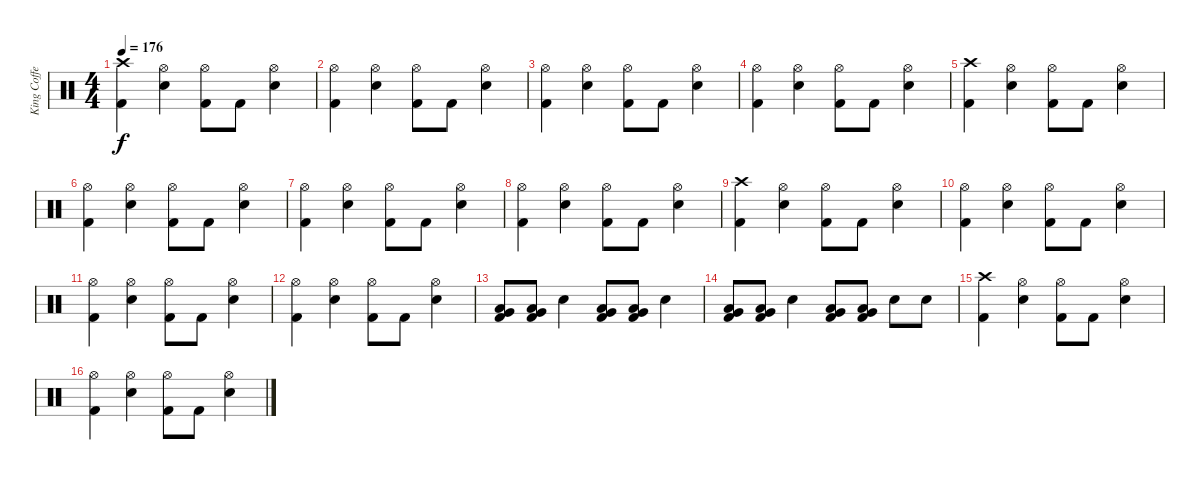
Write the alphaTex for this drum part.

\track ("King Coffey" "King Coffe") {instrument percussion}
\staff {score}
\articulation defaults
\ts (4 4)
\tempo 176
\clef neutral
\ks c
("Crash high (hit)" "Kick (hit) 2").4{dy f} ("Hi-Hat (open)" "Snare (hit) 2").4 ("Hi-Hat (open)" "Kick (hit) 2").8 "Kick (hit) 2".8 ("Hi-Hat (open)" "Snare (hit) 2").4 |
("Hi-Hat (open)" "Kick (hit) 2").4 ("Hi-Hat (open)" "Snare (hit) 2").4 ("Hi-Hat (open)" "Kick (hit) 2").8 "Kick (hit) 2".8 ("Hi-Hat (open)" "Snare (hit) 2").4 |
("Hi-Hat (open)" "Kick (hit) 2").4 ("Hi-Hat (open)" "Snare (hit) 2").4 ("Hi-Hat (open)" "Kick (hit) 2").8 "Kick (hit) 2".8 ("Hi-Hat (open)" "Snare (hit) 2").4 |
("Hi-Hat (open)" "Kick (hit) 2").4 ("Hi-Hat (open)" "Snare (hit) 2").4 ("Hi-Hat (open)" "Kick (hit) 2").8 "Kick (hit) 2".8 ("Hi-Hat (open)" "Snare (hit) 2").4 |
("Crash high (hit)" "Kick (hit) 2").4 ("Hi-Hat (open)" "Snare (hit) 2").4 ("Hi-Hat (open)" "Kick (hit) 2").8 "Kick (hit) 2".8 ("Hi-Hat (open)" "Snare (hit) 2").4 |
("Hi-Hat (open)" "Kick (hit) 2").4 ("Hi-Hat (open)" "Snare (hit) 2").4 ("Hi-Hat (open)" "Kick (hit) 2").8 "Kick (hit) 2".8 ("Hi-Hat (open)" "Snare (hit) 2").4 |
("Hi-Hat (open)" "Kick (hit) 2").4 ("Hi-Hat (open)" "Snare (hit) 2").4 ("Hi-Hat (open)" "Kick (hit) 2").8 "Kick (hit) 2".8 ("Hi-Hat (open)" "Snare (hit) 2").4 |
("Hi-Hat (open)" "Kick (hit) 2").4 ("Hi-Hat (open)" "Snare (hit) 2").4 ("Hi-Hat (open)" "Kick (hit) 2").8 "Kick (hit) 2".8 ("Hi-Hat (open)" "Snare (hit) 2").4 |
("Crash high (hit)" "Kick (hit) 2").4 ("Hi-Hat (open)" "Snare (hit) 2").4 ("Hi-Hat (open)" "Kick (hit) 2").8 "Kick (hit) 2".8 ("Hi-Hat (open)" "Snare (hit) 2").4 |
("Hi-Hat (open)" "Kick (hit) 2").4 ("Hi-Hat (open)" "Snare (hit) 2").4 ("Hi-Hat (open)" "Kick (hit) 2").8 "Kick (hit) 2".8 ("Hi-Hat (open)" "Snare (hit) 2").4 |
("Hi-Hat (open)" "Kick (hit) 2").4 ("Hi-Hat (open)" "Snare (hit) 2").4 ("Hi-Hat (open)" "Kick (hit) 2").8 "Kick (hit) 2".8 ("Hi-Hat (open)" "Snare (hit) 2").4 |
("Hi-Hat (open)" "Kick (hit) 2").4 ("Hi-Hat (open)" "Snare (hit) 2").4 ("Hi-Hat (open)" "Kick (hit) 2").8 "Kick (hit) 2".8 ("Hi-Hat (open)" "Snare (hit) 2").4 |
("Very Low Tom (hit)" "Low Tom (hit)" "Kick (hit) 2").8 ("Very Low Tom (hit)" "Low Tom (hit)" "Kick (hit) 2").8 "Snare (hit) 2".4 ("Very Low Tom (hit)" "Low Tom (hit)" "Kick (hit) 2").8 ("Very Low Tom (hit)" "Low Tom (hit)" "Kick (hit) 2").8 "Snare (hit) 2".4 |
("Very Low Tom (hit)" "Low Tom (hit)" "Kick (hit) 2").8 ("Very Low Tom (hit)" "Low Tom (hit)" "Kick (hit) 2").8 "Snare (hit) 2".4 ("Very Low Tom (hit)" "Low Tom (hit)" "Kick (hit) 2").8 ("Very Low Tom (hit)" "Low Tom (hit)" "Kick (hit) 2").8 "Snare (hit) 2".8 "Snare (hit) 2".8 |
("Crash high (hit)" "Kick (hit) 2").4 ("Hi-Hat (open)" "Snare (hit) 2").4 ("Hi-Hat (open)" "Kick (hit) 2").8 "Kick (hit) 2".8 ("Hi-Hat (open)" "Snare (hit) 2").4 |
("Hi-Hat (open)" "Kick (hit) 2").4 ("Hi-Hat (open)" "Snare (hit) 2").4 ("Hi-Hat (open)" "Kick (hit) 2").8 "Kick (hit) 2".8 ("Hi-Hat (open)" "Snare (hit) 2").4
